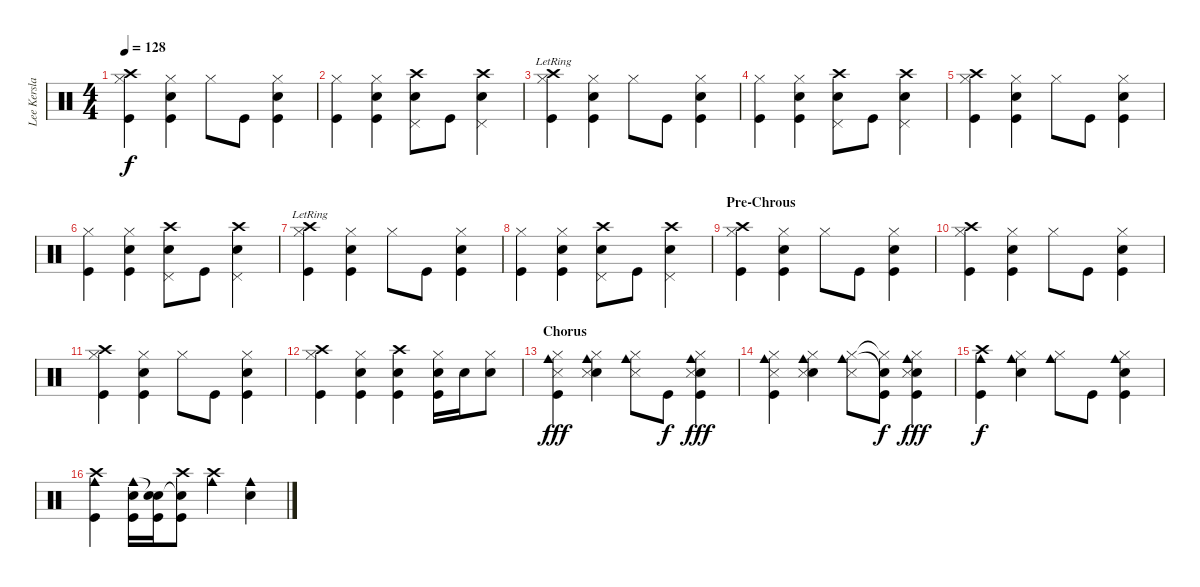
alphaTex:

\track ("Lee Kerslake (Drums)" "Lee Kersla") {instrument percussion}
\staff {score}
\articulation defaults
\ts (4 4)
\tempo 128
\clef neutral
\ks c
("Crash high (hit)" "Hi-Hat (closed)" "Kick (hit)").4{dy f} ("Hi-Hat (closed)" "Kick (hit)" "Electric Snare (hit)").4 "Hi-Hat (closed)".8 "Kick (hit)".8 ("Hi-Hat (closed)" "Electric Snare (hit)" "Kick (hit)").4 |
("Hi-Hat (closed)" "Kick (hit)").4 ("Hi-Hat (closed)" "Kick (hit)" "Electric Snare (hit)").4 ("Crash high (hit)" "Electric Snare (hit)" "Pedal Hi-Hat (hit)").8 "Kick (hit)".8 ("Crash high (hit)" "Electric Snare (hit)" "Pedal Hi-Hat (hit)").4 |
("Crash high (hit)"{lr} "Hi-Hat (closed)" "Kick (hit)").4 ("Hi-Hat (closed)" "Kick (hit)" "Electric Snare (hit)").4 "Hi-Hat (closed)".8 "Kick (hit)".8 ("Hi-Hat (closed)" "Electric Snare (hit)" "Kick (hit)").4 |
("Hi-Hat (closed)" "Kick (hit)").4 ("Hi-Hat (closed)" "Kick (hit)" "Electric Snare (hit)").4 ("Crash high (hit)" "Electric Snare (hit)" "Pedal Hi-Hat (hit)").8 "Kick (hit)".8 ("Crash high (hit)" "Electric Snare (hit)" "Pedal Hi-Hat (hit)").4 |
("Crash high (hit)" "Hi-Hat (closed)" "Kick (hit)").4 ("Hi-Hat (closed)" "Kick (hit)" "Electric Snare (hit)").4 "Hi-Hat (closed)".8 "Kick (hit)".8 ("Hi-Hat (closed)" "Electric Snare (hit)" "Kick (hit)").4 |
("Hi-Hat (closed)" "Kick (hit)").4 ("Hi-Hat (closed)" "Kick (hit)" "Electric Snare (hit)").4 ("Crash high (hit)" "Electric Snare (hit)" "Pedal Hi-Hat (hit)").8 "Kick (hit)".8 ("Crash high (hit)" "Electric Snare (hit)" "Pedal Hi-Hat (hit)").4 |
("Crash high (hit)"{lr} "Hi-Hat (closed)" "Kick (hit)").4 ("Hi-Hat (closed)" "Kick (hit)" "Electric Snare (hit)").4 "Hi-Hat (closed)".8 "Kick (hit)".8 ("Hi-Hat (closed)" "Electric Snare (hit)" "Kick (hit)").4 |
("Hi-Hat (closed)" "Kick (hit)").4 ("Hi-Hat (closed)" "Kick (hit)" "Electric Snare (hit)").4 ("Crash high (hit)" "Electric Snare (hit)" "Pedal Hi-Hat (hit)").8 "Kick (hit)".8 ("Crash high (hit)" "Electric Snare (hit)" "Pedal Hi-Hat (hit)").4 |
\section ("" "Pre-Chrous")
("Crash high (hit)" "Hi-Hat (closed)" "Kick (hit)").4 ("Hi-Hat (closed)" "Kick (hit)" "Electric Snare (hit)").4 "Hi-Hat (closed)".8 "Kick (hit)".8 ("Hi-Hat (closed)" "Electric Snare (hit)" "Kick (hit)").4 |
("Crash high (hit)" "Hi-Hat (closed)" "Kick (hit)").4 ("Hi-Hat (closed)" "Kick (hit)" "Electric Snare (hit)").4 "Hi-Hat (closed)".8 "Kick (hit)".8 ("Hi-Hat (closed)" "Electric Snare (hit)" "Kick (hit)").4 |
("Crash high (hit)" "Hi-Hat (closed)" "Kick (hit)").4 ("Hi-Hat (closed)" "Kick (hit)" "Electric Snare (hit)").4 "Hi-Hat (closed)".8 "Kick (hit)".8 ("Hi-Hat (closed)" "Electric Snare (hit)" "Kick (hit)").4 |
("Crash high (hit)" "Hi-Hat (closed)" "Kick (hit)").4 ("Hi-Hat (closed)" "Kick (hit)" "Electric Snare (hit)").4 ("Crash high (hit)" "Electric Snare (hit)" "Kick (hit)").4 ("Electric Snare (hit)" "Hi-Hat (closed)" "Kick (hit)").16 "Electric Snare (hit)".16 ("Electric Snare (hit)" "Hi-Hat (closed)").8 |
\section ("" "Chorus")
("Kick (hit)" "Hi-Hat (closed)" "Snare (side stick) 3" "Cowbell medium (hit)").4{dy fff} ("Hi-Hat (closed)" "Electric Snare (hit)" "Snare (side stick) 3" "Cowbell medium (hit)").4 ("Hi-Hat (closed)" "Snare (side stick) 3" "Cowbell medium (hit)").8 "Kick (hit)".8{dy f} ("Kick (hit)" "Hi-Hat (closed)" "Electric Snare (hit)" "Snare (side stick) 3" "Cowbell medium (hit)").4{dy fff} |
("Kick (hit)" "Hi-Hat (closed)" "Snare (side stick) 3" "Cowbell medium (hit)").4 ("Hi-Hat (closed)" "Electric Snare (hit)" "Snare (side stick) 3" "Cowbell medium (hit)").4 ("Hi-Hat (closed)" "Snare (side stick) 3" "Cowbell medium (hit)").8 ("Hi-Hat (closed)"{t} "Kick (hit)" "Snare (hit)"{t}).8{dy f} ("Kick (hit)" "Hi-Hat (closed)" "Electric Snare (hit)" "Snare (side stick) 3" "Cowbell medium (hit)").4{dy fff} |
("Kick (hit)" "Crash high (hit)" "Cowbell medium (hit)").4{dy f} ("Hi-Hat (closed)" "Electric Snare (hit)" "Cowbell medium (hit)").4 ("Hi-Hat (closed)" "Cowbell medium (hit)").8 "Kick (hit)".8 ("Kick (hit)" "Electric Snare (hit)" "Hi-Hat (closed)" "Cowbell medium (hit)").4 |
("Crash high (hit)" "Kick (hit)" "Cowbell medium (hit)").4 ("Electric Snare (hit)" "Kick (hit)" "Cowbell medium (hit)").16 ("Electric Snare (hit)" "Kick (hit)" "Snare (hit)"{t}).16 ("Kick (hit)" "Crash high (hit)" "Snare (hit)"{t}).8 ("Crash high (hit)" "Cowbell medium (hit)").4 ("Electric Snare (hit)" "Cowbell medium (hit)").4
